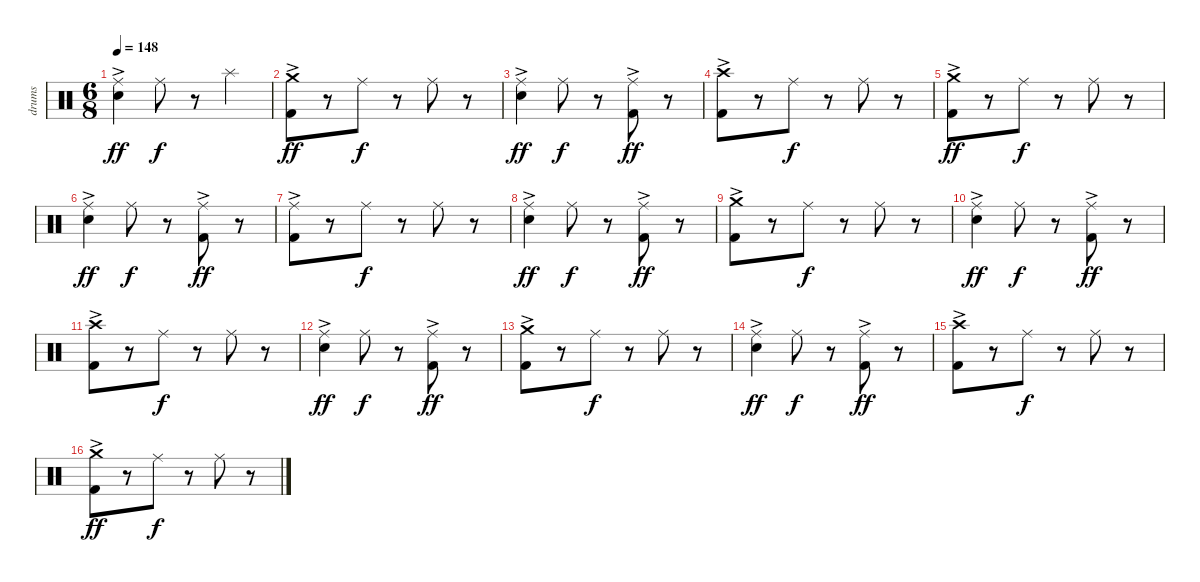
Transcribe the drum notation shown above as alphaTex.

\track ("drums" "drums") {instrument percussion}
\staff {score}
\articulation defaults
\ts (6 8)
\tempo 148
\clef neutral
\ks c
("Ride (middle)" "Electric Snare (hit)"{ac}).4{dy ff} "Ride (middle)".8{dy f} r.8 "Splash (hit)".4 |
("Crash medium (hit)" "Kick (hit) 2"{ac}).8{dy ff} r.8 "Ride (middle)".8{dy f} r.8 "Ride (middle)".8 r.8 |
("Ride (middle)" "Electric Snare (hit)"{ac}).4{dy ff} "Ride (middle)".8{dy f} r.8 ("Ride (middle)" "Kick (hit) 2"{ac}).8{dy ff} r.8 |
("Crash high (hit)" "Kick (hit) 2"{ac}).8 r.8 "Ride (middle)".8{dy f} r.8 "Ride (middle)".8 r.8 |
("Crash medium (hit)" "Kick (hit) 2"{ac}).8{dy ff} r.8 "Ride (middle)".8{dy f} r.8 "Ride (middle)".8 r.8 |
("Ride (middle)" "Electric Snare (hit)"{ac}).4{dy ff} "Ride (middle)".8{dy f} r.8 ("Ride (middle)" "Kick (hit) 2"{ac}).8{dy ff} r.8 |
("Ride (middle)" "Kick (hit) 2"{ac}).8 r.8 "Ride (middle)".8{dy f} r.8 "Ride (middle)".8 r.8 |
("Ride (middle)" "Electric Snare (hit)"{ac}).4{dy ff} "Ride (middle)".8{dy f} r.8 ("Ride (middle)" "Kick (hit) 2"{ac}).8{dy ff} r.8 |
("Crash medium (hit)" "Kick (hit) 2"{ac}).8 r.8 "Ride (middle)".8{dy f} r.8 "Ride (middle)".8 r.8 |
("Ride (middle)" "Electric Snare (hit)"{ac}).4{dy ff} "Ride (middle)".8{dy f} r.8 ("Ride (middle)" "Kick (hit) 2"{ac}).8{dy ff} r.8 |
("Crash high (hit)" "Kick (hit) 2"{ac}).8 r.8 "Ride (middle)".8{dy f} r.8 "Ride (middle)".8 r.8 |
("Ride (middle)" "Electric Snare (hit)"{ac}).4{dy ff} "Ride (middle)".8{dy f} r.8 ("Ride (middle)" "Kick (hit) 2"{ac}).8{dy ff} r.8 |
("Crash medium (hit)" "Kick (hit) 2"{ac}).8 r.8 "Ride (middle)".8{dy f} r.8 "Ride (middle)".8 r.8 |
("Ride (middle)" "Electric Snare (hit)"{ac}).4{dy ff} "Ride (middle)".8{dy f} r.8 ("Ride (middle)" "Kick (hit) 2"{ac}).8{dy ff} r.8 |
("Crash high (hit)" "Kick (hit) 2"{ac}).8 r.8 "Ride (middle)".8{dy f} r.8 "Ride (middle)".8 r.8 |
("Crash medium (hit)" "Kick (hit) 2"{ac}).8{dy ff} r.8 "Ride (middle)".8{dy f} r.8 "Ride (middle)".8 r.8
